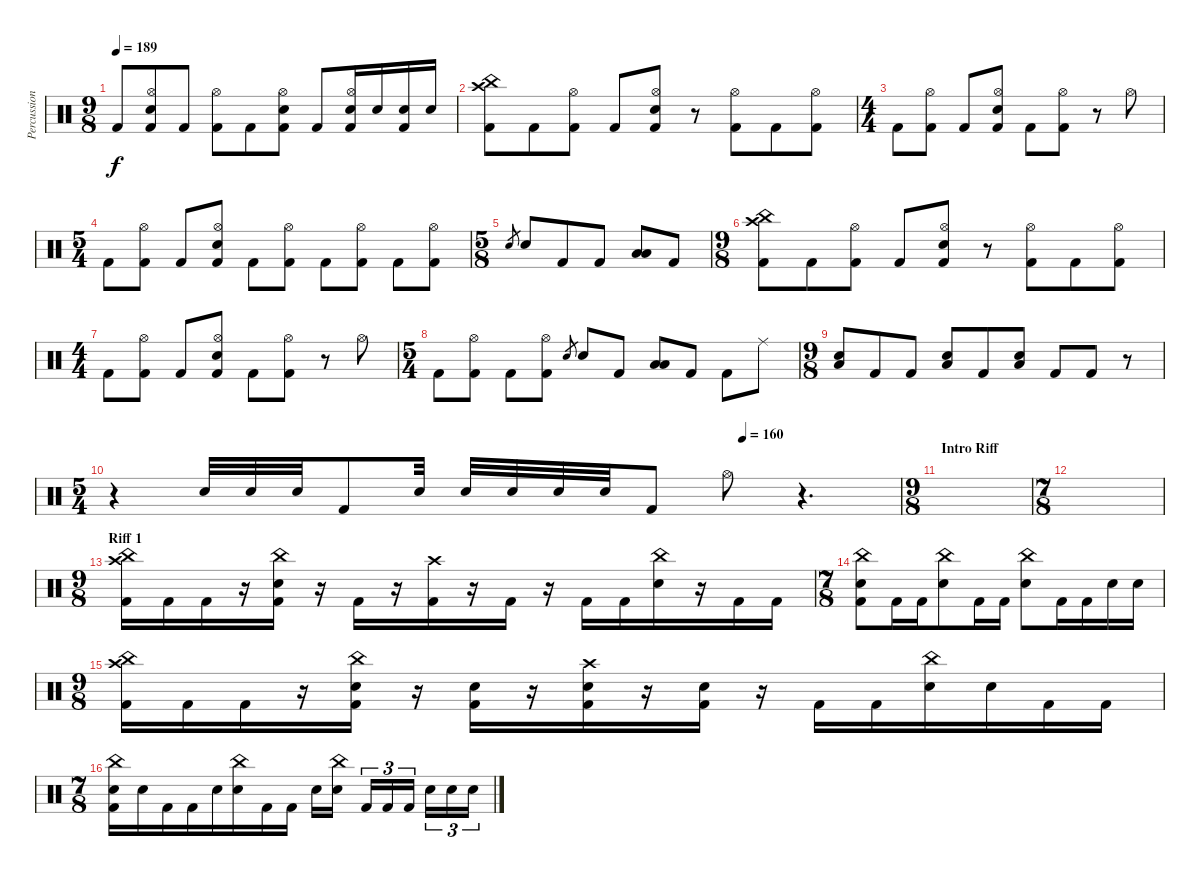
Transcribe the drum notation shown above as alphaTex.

\track ("Percussion" "Percussion") {instrument percussion}
\staff {score}
\articulation defaults
\ts (9 8)
\tempo 189
\clef neutral
\ks c "Kick (hit) 2".8{dy f}
("Hi-Hat (open)" "Electric Snare (hit)" "Kick (hit) 2").8 "Kick (hit) 2".8 ("Hi-Hat (open)" "Kick (hit) 2").8 "Kick (hit) 2".8 ("Hi-Hat (open)" "Electric Snare (hit)" "Kick (hit) 2").8 "Kick (hit) 2".8 ("Hi-Hat (open)" "Electric Snare (hit)" "Kick (hit) 2").16 "Electric Snare (hit)".16 ("Electric Snare (hit)" "Kick (hit) 2").16 "Electric Snare (hit)".16 |
("China (hit)" "Crash high (hit)" "Kick (hit) 2").8 "Kick (hit) 2".8 ("Hi-Hat (open)" "Kick (hit) 2").8 "Kick (hit) 2".8 ("Hi-Hat (open)" "Electric Snare (hit)" "Kick (hit) 2").8 r.8 ("Hi-Hat (open)" "Kick (hit) 2").8 "Kick (hit) 2".8 ("Hi-Hat (open)" "Kick (hit) 2").8 |
\ts (4 4)
"Kick (hit) 2".8 ("Hi-Hat (open)" "Kick (hit) 2").8 "Kick (hit) 2".8 ("Hi-Hat (open)" "Electric Snare (hit)" "Kick (hit) 2").8 "Kick (hit) 2".8 ("Hi-Hat (open)" "Kick (hit) 2").8 r.8 "Hi-Hat (open)".8 |
\ts (5 4)
"Kick (hit) 2".8 ("Hi-Hat (open)" "Kick (hit) 2").8 "Kick (hit) 2".8 ("Hi-Hat (open)" "Electric Snare (hit)" "Kick (hit) 2").8 "Kick (hit) 2".8 ("Hi-Hat (open)" "Kick (hit) 2").8 "Kick (hit) 2".8 ("Hi-Hat (open)" "Kick (hit) 2").8 "Kick (hit) 2".8 ("Hi-Hat (open)" "Kick (hit) 2").8 |
\ts (5 8)
"Electric Snare (hit)".8{gr} "Electric Snare (hit)".8 "Kick (hit) 2".8 "Kick (hit) 2".8 ("Low Tom (hit)" "Low Floor Tom (hit)").8 "Kick (hit) 2".8 |
\ts (9 8)
("China (hit)" "Crash high (hit)" "Kick (hit) 2").8 "Kick (hit) 2".8 ("Hi-Hat (open)" "Kick (hit) 2").8 "Kick (hit) 2".8 ("Hi-Hat (open)" "Electric Snare (hit)" "Kick (hit) 2").8 r.8 ("Hi-Hat (open)" "Kick (hit) 2").8 "Kick (hit) 2".8 ("Hi-Hat (open)" "Kick (hit) 2").8 |
\ts (4 4)
"Kick (hit) 2".8 ("Hi-Hat (open)" "Kick (hit) 2").8 "Kick (hit) 2".8 ("Hi-Hat (open)" "Electric Snare (hit)" "Kick (hit) 2").8 "Kick (hit) 2".8 ("Hi-Hat (open)" "Kick (hit) 2").8 r.8 "Hi-Hat (open)".8 |
\ts (5 4)
"Kick (hit) 2".8 ("Hi-Hat (open)" "Kick (hit) 2").8 "Kick (hit) 2".8 ("Hi-Hat (open)" "Kick (hit) 2").8 "Electric Snare (hit)".8{gr} "Electric Snare (hit)".8 "Kick (hit) 2".8 ("Low Tom (hit)" "Low Floor Tom (hit)").8 "Kick (hit) 2".8 "Kick (hit) 2".8 "Ride (middle)".8 |
\ts (9 8)
("Electric Snare (hit)" "Low Floor Tom (hit)").8 "Kick (hit) 2".8 "Kick (hit) 2".8 ("Electric Snare (hit)" "Low Floor Tom (hit)").8 "Kick (hit) 2".8 ("Electric Snare (hit)" "Low Floor Tom (hit)").8 "Kick (hit) 2".8 "Kick (hit) 2".8 r.8 |
\ts (5 4)
\tempo (160 0.8)
r.4 "Electric Snare (hit)".32 "Electric Snare (hit)".32 "Electric Snare (hit)".32 "Kick (hit) 2".8 "Electric Snare (hit)".32 "Electric Snare (hit)".32 "Electric Snare (hit)".32 "Electric Snare (hit)".32 "Electric Snare (hit)".32 "Kick (hit) 2".8 "Hi-Hat (open)".8 r.4{d} |
\ts (9 8)
\section ("" "Intro Riff")
|
\ts (7 8)
|
\ts (9 8)
\section ("" "Riff 1")
("China (hit)" "Crash high (hit)" "Kick (hit) 2").16 "Kick (hit) 2".16 "Kick (hit) 2".16 r.16 ("China (hit)" "Electric Snare (hit)" "Kick (hit) 2").16 r.16 "Kick (hit) 2".16 r.16 ("Crash high (hit)" "Kick (hit) 2").16 r.16 "Kick (hit) 2".16 r.16 "Kick (hit) 2".16 "Kick (hit) 2".16 ("China (hit)" "Electric Snare (hit)").16 r.16 "Kick (hit) 2".16 "Kick (hit) 2".16 |
\ts (7 8)
("China (hit)" "Electric Snare (hit)" "Kick (hit) 2").8 "Kick (hit) 2".16 "Kick (hit) 2".16 ("China (hit)" "Electric Snare (hit)").8 "Kick (hit) 2".16 "Kick (hit) 2".16 ("China (hit)" "Electric Snare (hit)").8 "Kick (hit) 2".16 "Kick (hit) 2".16 "Electric Snare (hit)".16 "Electric Snare (hit)".16 |
\ts (9 8)
("China (hit)" "Crash high (hit)" "Kick (hit) 2").16 "Kick (hit) 2".16 "Kick (hit) 2".16 r.16 ("China (hit)" "Electric Snare (hit)" "Kick (hit) 2").16 r.16 ("Electric Snare (hit)" "Kick (hit) 2").16 r.16 ("Crash high (hit)" "Electric Snare (hit)" "Kick (hit) 2").16 r.16 ("Electric Snare (hit)" "Kick (hit) 2").16 r.16 "Kick (hit) 2".16 "Kick (hit) 2".16 ("China (hit)" "Electric Snare (hit)").16 "Electric Snare (hit)".16 "Kick (hit) 2".16 "Kick (hit) 2".16 |
\ts (7 8)
("China (hit)" "Electric Snare (hit)" "Kick (hit) 2").16 "Electric Snare (hit)".16 "Kick (hit) 2".16 "Kick (hit) 2".16 "Electric Snare (hit)".16 ("China (hit)" "Electric Snare (hit)").16 "Kick (hit) 2".16 "Kick (hit) 2".16 "Electric Snare (hit)".16 ("China (hit)" "Electric Snare (hit)").16 "Kick (hit) 2".16{tu (3 2)} "Kick (hit) 2".16{tu (3 2)} "Kick (hit) 2".16{tu (3 2)} "Electric Snare (hit)".16{tu (3 2)} "Electric Snare (hit)".16{tu (3 2)} "Electric Snare (hit)".16{tu (3 2)}
